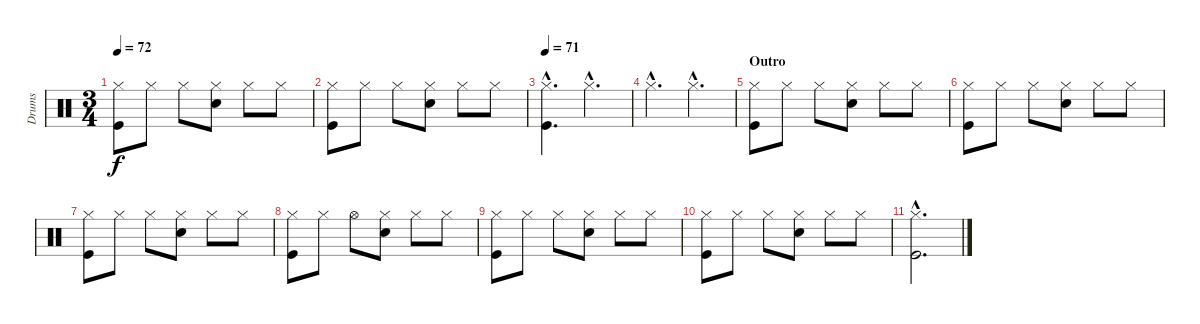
\track ("Drums" "Drums") {instrument percussion}
\staff {score}
\articulation defaults
\ts (3 4)
\tempo 72
\clef neutral
\ks c
("Hi-Hat (closed)" "Kick (hit)").8{dy f} "Hi-Hat (closed)".8 "Hi-Hat (closed)".8 ("Hi-Hat (closed)" "Snare (hit) 2").8 "Hi-Hat (closed)".8 "Hi-Hat (closed)".8 |
("Hi-Hat (closed)" "Kick (hit)").8 "Hi-Hat (closed)".8 "Hi-Hat (closed)".8 ("Hi-Hat (closed)" "Snare (hit) 2").8 "Hi-Hat (closed)".8 "Hi-Hat (closed)".8 |
\tempo 71
("Hi-Hat (closed)"{hac} "Kick (hit)"{hac}).4{d} "Hi-Hat (closed)"{hac}.4{d} |
"Hi-Hat (closed)"{hac}.4{d} "Hi-Hat (closed)"{hac}.4{d} |
\section ("" "Outro")
("Hi-Hat (closed)" "Kick (hit)").8 "Hi-Hat (closed)".8 "Hi-Hat (closed)".8 ("Hi-Hat (closed)" "Snare (hit) 2").8 "Hi-Hat (closed)".8 "Hi-Hat (closed)".8 |
("Hi-Hat (closed)" "Kick (hit)").8 "Hi-Hat (closed)".8 "Hi-Hat (closed)".8 ("Hi-Hat (closed)" "Snare (hit) 2").8 "Hi-Hat (closed)".8 "Hi-Hat (closed)".8 |
("Hi-Hat (closed)" "Kick (hit)").8 "Hi-Hat (closed)".8 "Hi-Hat (closed)".8 ("Hi-Hat (closed)" "Snare (hit) 2").8 "Hi-Hat (closed)".8 "Hi-Hat (closed)".8 |
("Hi-Hat (closed)" "Kick (hit)").8 "Hi-Hat (closed)".8 "Hi-Hat (open)".8 ("Hi-Hat (closed)" "Snare (hit) 2").8 "Hi-Hat (closed)".8 "Hi-Hat (closed)".8 |
("Hi-Hat (closed)" "Kick (hit)").8 "Hi-Hat (closed)".8 "Hi-Hat (closed)".8 ("Hi-Hat (closed)" "Snare (hit) 2").8 "Hi-Hat (closed)".8 "Hi-Hat (closed)".8 |
("Hi-Hat (closed)" "Kick (hit)").8 "Hi-Hat (closed)".8 "Hi-Hat (closed)".8 ("Hi-Hat (closed)" "Snare (hit) 2").8 "Hi-Hat (closed)".8 "Hi-Hat (closed)".8 |
("Hi-Hat (closed)"{hac} "Kick (hit)"{hac}).2{d}
